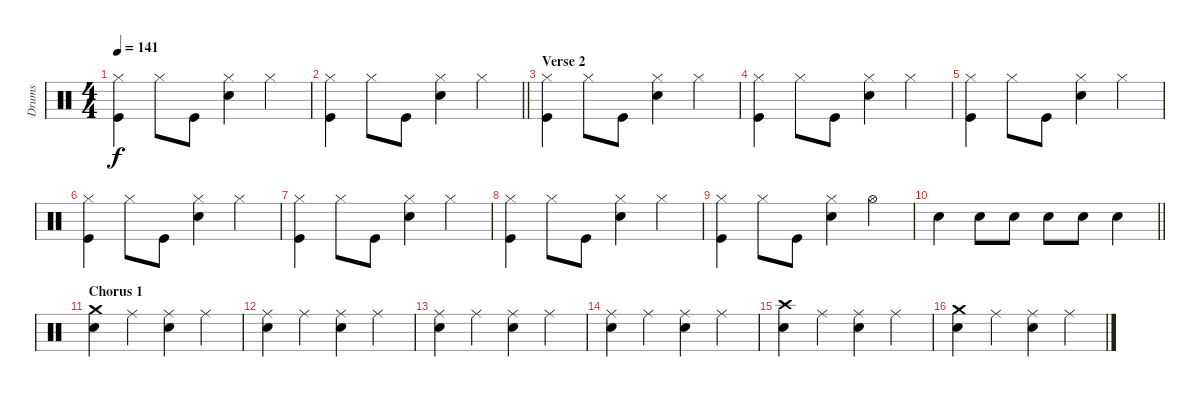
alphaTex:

\track ("Drums" "Drums") {instrument percussion}
\staff {score}
\articulation defaults
\ts (4 4)
\tempo 141
\clef neutral
\ks c
("Hi-Hat (closed)" "Kick (hit)").4{dy f} "Hi-Hat (closed)".8 "Kick (hit)".8 ("Hi-Hat (closed)" "Snare (hit) 2").4 "Hi-Hat (closed)".4 |
\barLineRight lightlight
("Hi-Hat (closed)" "Kick (hit)").4 "Hi-Hat (closed)".8 "Kick (hit)".8 ("Hi-Hat (closed)" "Snare (hit) 2").4 "Hi-Hat (closed)".4 |
\section ("" "Verse 2")
("Hi-Hat (closed)" "Kick (hit)").4 "Hi-Hat (closed)".8 "Kick (hit)".8 ("Hi-Hat (closed)" "Snare (hit) 2").4 "Hi-Hat (closed)".4 |
("Hi-Hat (closed)" "Kick (hit)").4 "Hi-Hat (closed)".8 "Kick (hit)".8 ("Hi-Hat (closed)" "Snare (hit) 2").4 "Hi-Hat (closed)".4 |
("Hi-Hat (closed)" "Kick (hit)").4 "Hi-Hat (closed)".8 "Kick (hit)".8 ("Hi-Hat (closed)" "Snare (hit) 2").4 "Hi-Hat (closed)".4 |
("Hi-Hat (closed)" "Kick (hit)").4 "Hi-Hat (closed)".8 "Kick (hit)".8 ("Hi-Hat (closed)" "Snare (hit) 2").4 "Hi-Hat (closed)".4 |
("Hi-Hat (closed)" "Kick (hit)").4 "Hi-Hat (closed)".8 "Kick (hit)".8 ("Hi-Hat (closed)" "Snare (hit) 2").4 "Hi-Hat (closed)".4 |
("Hi-Hat (closed)" "Kick (hit)").4 "Hi-Hat (closed)".8 "Kick (hit)".8 ("Hi-Hat (closed)" "Snare (hit) 2").4 "Hi-Hat (closed)".4 |
("Hi-Hat (closed)" "Kick (hit)").4 "Hi-Hat (closed)".8 "Kick (hit)".8 ("Hi-Hat (closed)" "Snare (hit) 2").4 "Hi-Hat (open)".4 |
\barLineRight lightlight "Snare (hit) 2".4 "Snare (hit) 2".8 "Snare (hit) 2".8 "Snare (hit) 2".8 "Snare (hit) 2".8 "Snare (hit) 2".4
|
\section ("" "Chorus 1")
("Crash medium (hit)" "Snare (hit) 2").4 "Ride (middle)".4 ("Ride (middle)" "Snare (hit) 2").4 "Ride (middle)".4 |
("Ride (middle)" "Snare (hit) 2").4 "Ride (middle)".4 ("Ride (middle)" "Snare (hit) 2").4 "Ride (middle)".4 |
("Ride (middle)" "Snare (hit) 2").4 "Ride (middle)".4 ("Ride (middle)" "Snare (hit) 2").4 "Ride (middle)".4 |
("Ride (middle)" "Snare (hit) 2").4 "Ride (middle)".4 ("Ride (middle)" "Snare (hit) 2").4 "Ride (middle)".4 |
("Crash high (hit)" "Snare (hit) 2").4 "Ride (middle)".4 ("Ride (middle)" "Snare (hit) 2").4 "Ride (middle)".4 |
("Crash medium (hit)" "Snare (hit) 2").4 "Ride (middle)".4 ("Ride (middle)" "Snare (hit) 2").4 "Ride (middle)".4
